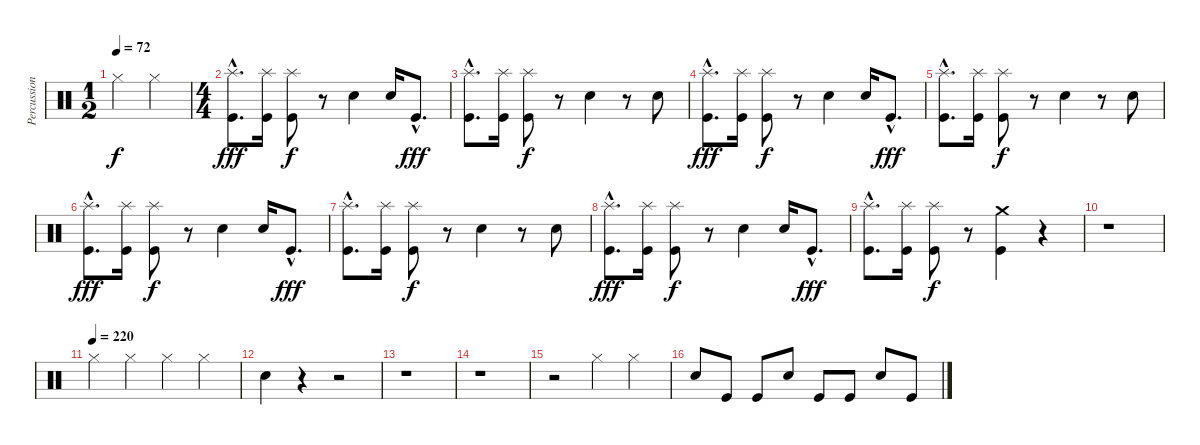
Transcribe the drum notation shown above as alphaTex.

\track ("Percussions" "Percussion") {instrument percussion}
\staff {score}
\articulation defaults
\ts (1 2)
\tempo 72
\clef neutral
\ks c "Hi-Hat (closed)".4{dy f} "Hi-Hat (closed)".4
|
\ts (4 4)
("Kick (hit)"{hac} "Splash (hit)"{hac}).8{d dy fff} ("Kick (hit)" "Splash (hit)").16 ("Kick (hit)" "Splash (hit)").8{dy f} r.8 "Electric Snare (hit)".4 "Electric Snare (hit)".16 "Kick (hit)"{hac}.8{d dy fff} |
("Kick (hit)"{hac} "Splash (hit)"{hac}).8{d} ("Kick (hit)" "Splash (hit)").16 ("Kick (hit)" "Splash (hit)").8{dy f} r.8 "Electric Snare (hit)".4 r.8 "Electric Snare (hit)".8 |
("Kick (hit)"{hac} "Splash (hit)"{hac}).8{d dy fff} ("Kick (hit)" "Splash (hit)").16 ("Kick (hit)" "Splash (hit)").8{dy f} r.8 "Electric Snare (hit)".4 "Electric Snare (hit)".16 "Kick (hit)"{hac}.8{d dy fff} |
("Kick (hit)"{hac} "Splash (hit)"{hac}).8{d} ("Kick (hit)" "Splash (hit)").16 ("Kick (hit)" "Splash (hit)").8{dy f} r.8 "Electric Snare (hit)".4 r.8 "Electric Snare (hit)".8 |
("Kick (hit)"{hac} "Splash (hit)"{hac}).8{d dy fff} ("Kick (hit)" "Splash (hit)").16 ("Kick (hit)" "Splash (hit)").8{dy f} r.8 "Electric Snare (hit)".4 "Electric Snare (hit)".16 "Kick (hit)"{hac}.8{d dy fff} |
("Kick (hit)"{hac} "Splash (hit)"{hac}).8{d} ("Kick (hit)" "Splash (hit)").16 ("Kick (hit)" "Splash (hit)").8{dy f} r.8 "Electric Snare (hit)".4 r.8 "Electric Snare (hit)".8 |
("Kick (hit)"{hac} "Splash (hit)"{hac}).8{d dy fff} ("Kick (hit)" "Splash (hit)").16 ("Kick (hit)" "Splash (hit)").8{dy f} r.8 "Electric Snare (hit)".4 "Electric Snare (hit)".16 "Kick (hit)"{hac}.8{d dy fff} |
("Kick (hit)"{hac} "Splash (hit)"{hac}).8{d} ("Kick (hit)" "Splash (hit)").16 ("Kick (hit)" "Splash (hit)").8{dy f} r.8 ("Kick (hit)" "Crash medium (hit)").4 r.4 |
r.1 |
\tempo 230
\tempo (220)
"Hi-Hat (closed)".4 "Hi-Hat (closed)".4 "Hi-Hat (closed)".4 "Hi-Hat (closed)".4 |
"Electric Snare (hit)".4 r.4 r.2 |
r.1 |
r.1 |
r.2 "Hi-Hat (closed)".4 "Hi-Hat (closed)".4 |
"Electric Snare (hit)".8 "Kick (hit)".8 "Kick (hit)".8 "Electric Snare (hit)".8 "Kick (hit)".8 "Kick (hit)".8 "Electric Snare (hit)".8 "Kick (hit)".8
